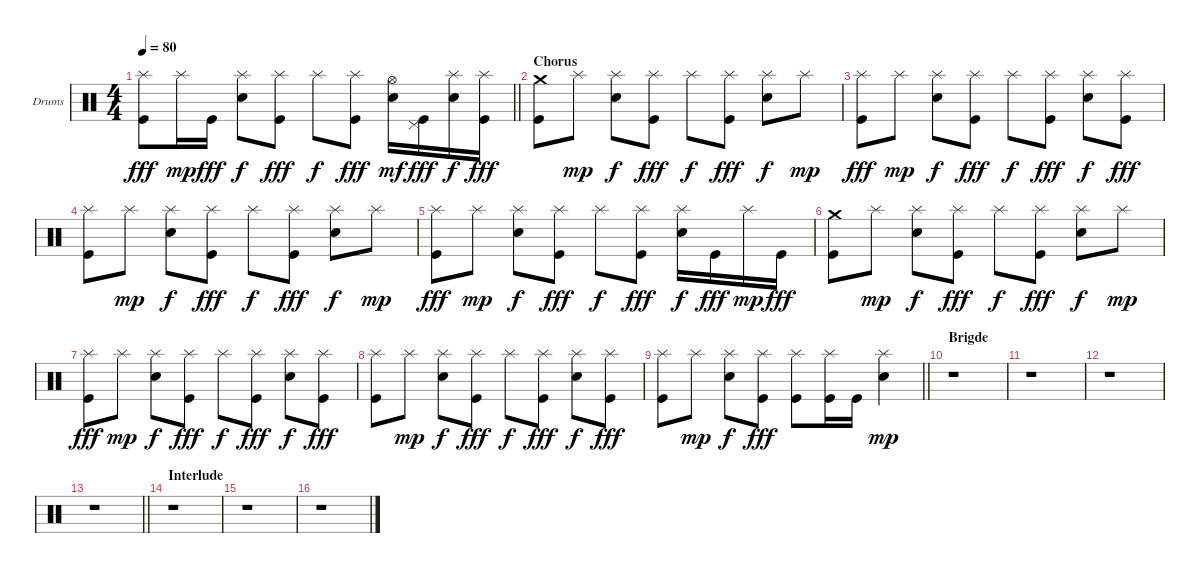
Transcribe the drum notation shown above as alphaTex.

\bracketExtendMode groupsimilarinstruments
\firstSystemTrackNameOrientation horizontal
\otherSystemsTrackNameOrientation horizontal
\track ("Drumkit" "Drums") {instrument percussion}
\staff {score}
\articulation defaults
\ts (4 4)
\tempo 80
\clef neutral
\barLineRight lightlight
\ks c
("Kick (hit)" "Splash (hit)").8{dy fff} "Splash (hit)".16{dy mp} "Kick (hit)".16{dy fff} ("Splash (hit)" "Snare (hit) 2").8{dy f} ("Kick (hit)" "Splash (hit)").8{dy fff} "Splash (hit)".8{dy f} ("Kick (hit)" "Splash (hit)").8{dy fff} ("Hi-Hat (open)" "Snare (hit) 2").16{dy mf} ("Kick (hit)" "Pedal Hi-Hat (hit)").16{dy fff} ("Splash (hit)" "Snare (hit) 2").16{dy f} ("Kick (hit)" "Splash (hit)").16{dy fff} |
\section ("" "Chorus")
("Kick (hit)" "Crash medium (hit)").8 "Splash (hit)".8{dy mp} ("Splash (hit)" "Snare (hit) 2").8{dy f} ("Kick (hit)" "Splash (hit)").8{dy fff} "Splash (hit)".8{dy f} ("Kick (hit)" "Splash (hit)").8{dy fff} ("Splash (hit)" "Snare (hit) 2").8{dy f} "Splash (hit)".8{dy mp} |
("Kick (hit)" "Splash (hit)").8{dy fff} "Splash (hit)".8{dy mp} ("Splash (hit)" "Snare (hit) 2").8{dy f} ("Kick (hit)" "Splash (hit)").8{dy fff} "Splash (hit)".8{dy f} ("Kick (hit)" "Splash (hit)").8{dy fff} ("Splash (hit)" "Snare (hit) 2").8{dy f} ("Kick (hit)" "Splash (hit)").8{dy fff} |
("Kick (hit)" "Splash (hit)").8 "Splash (hit)".8{dy mp} ("Splash (hit)" "Snare (hit) 2").8{dy f} ("Kick (hit)" "Splash (hit)").8{dy fff} "Splash (hit)".8{dy f} ("Kick (hit)" "Splash (hit)").8{dy fff} ("Splash (hit)" "Snare (hit) 2").8{dy f} "Splash (hit)".8{dy mp} |
("Kick (hit)" "Splash (hit)").8{dy fff} "Splash (hit)".8{dy mp} ("Splash (hit)" "Snare (hit) 2").8{dy f} ("Kick (hit)" "Splash (hit)").8{dy fff} "Splash (hit)".8{dy f} ("Kick (hit)" "Splash (hit)").8{dy fff} ("Splash (hit)" "Snare (hit) 2").16{dy f} "Kick (hit)".16{dy fff} "Splash (hit)".16{dy mp} "Kick (hit)".16{dy fff} |
("Kick (hit)" "Crash medium (hit)").8 "Splash (hit)".8{dy mp} ("Splash (hit)" "Snare (hit) 2").8{dy f} ("Kick (hit)" "Splash (hit)").8{dy fff} "Splash (hit)".8{dy f} ("Kick (hit)" "Splash (hit)").8{dy fff} ("Splash (hit)" "Snare (hit) 2").8{dy f} "Splash (hit)".8{dy mp} |
("Kick (hit)" "Splash (hit)").8{dy fff} "Splash (hit)".8{dy mp} ("Splash (hit)" "Snare (hit) 2").8{dy f} ("Kick (hit)" "Splash (hit)").8{dy fff} "Splash (hit)".8{dy f} ("Kick (hit)" "Splash (hit)").8{dy fff} ("Splash (hit)" "Snare (hit) 2").8{dy f} ("Kick (hit)" "Splash (hit)").8{dy fff} |
("Kick (hit)" "Splash (hit)").8 "Splash (hit)".8{dy mp} ("Splash (hit)" "Snare (hit) 2").8{dy f} ("Kick (hit)" "Splash (hit)").8{dy fff} "Splash (hit)".8{dy f} ("Kick (hit)" "Splash (hit)").8{dy fff} ("Splash (hit)" "Snare (hit) 2").8{dy f} ("Kick (hit)" "Splash (hit)").8{dy fff} |
\barLineRight lightlight
("Kick (hit)" "Splash (hit)").8 "Splash (hit)".8{dy mp} ("Splash (hit)" "Snare (hit) 2").8{dy f} ("Kick (hit)" "Splash (hit)").8{dy fff} ("Kick (hit)" "Splash (hit)").8 ("Kick (hit)" "Splash (hit)").16 "Kick (hit)".16 ("Splash (hit)" "Snare (hit) 2").4{dy mp} |
\section ("" "Brigde")
r.1 |
r.1 |
r.1 |
\barLineRight lightlight
r.1 |
\section ("" "Interlude")
r.1 |
r.1 |
r.1
